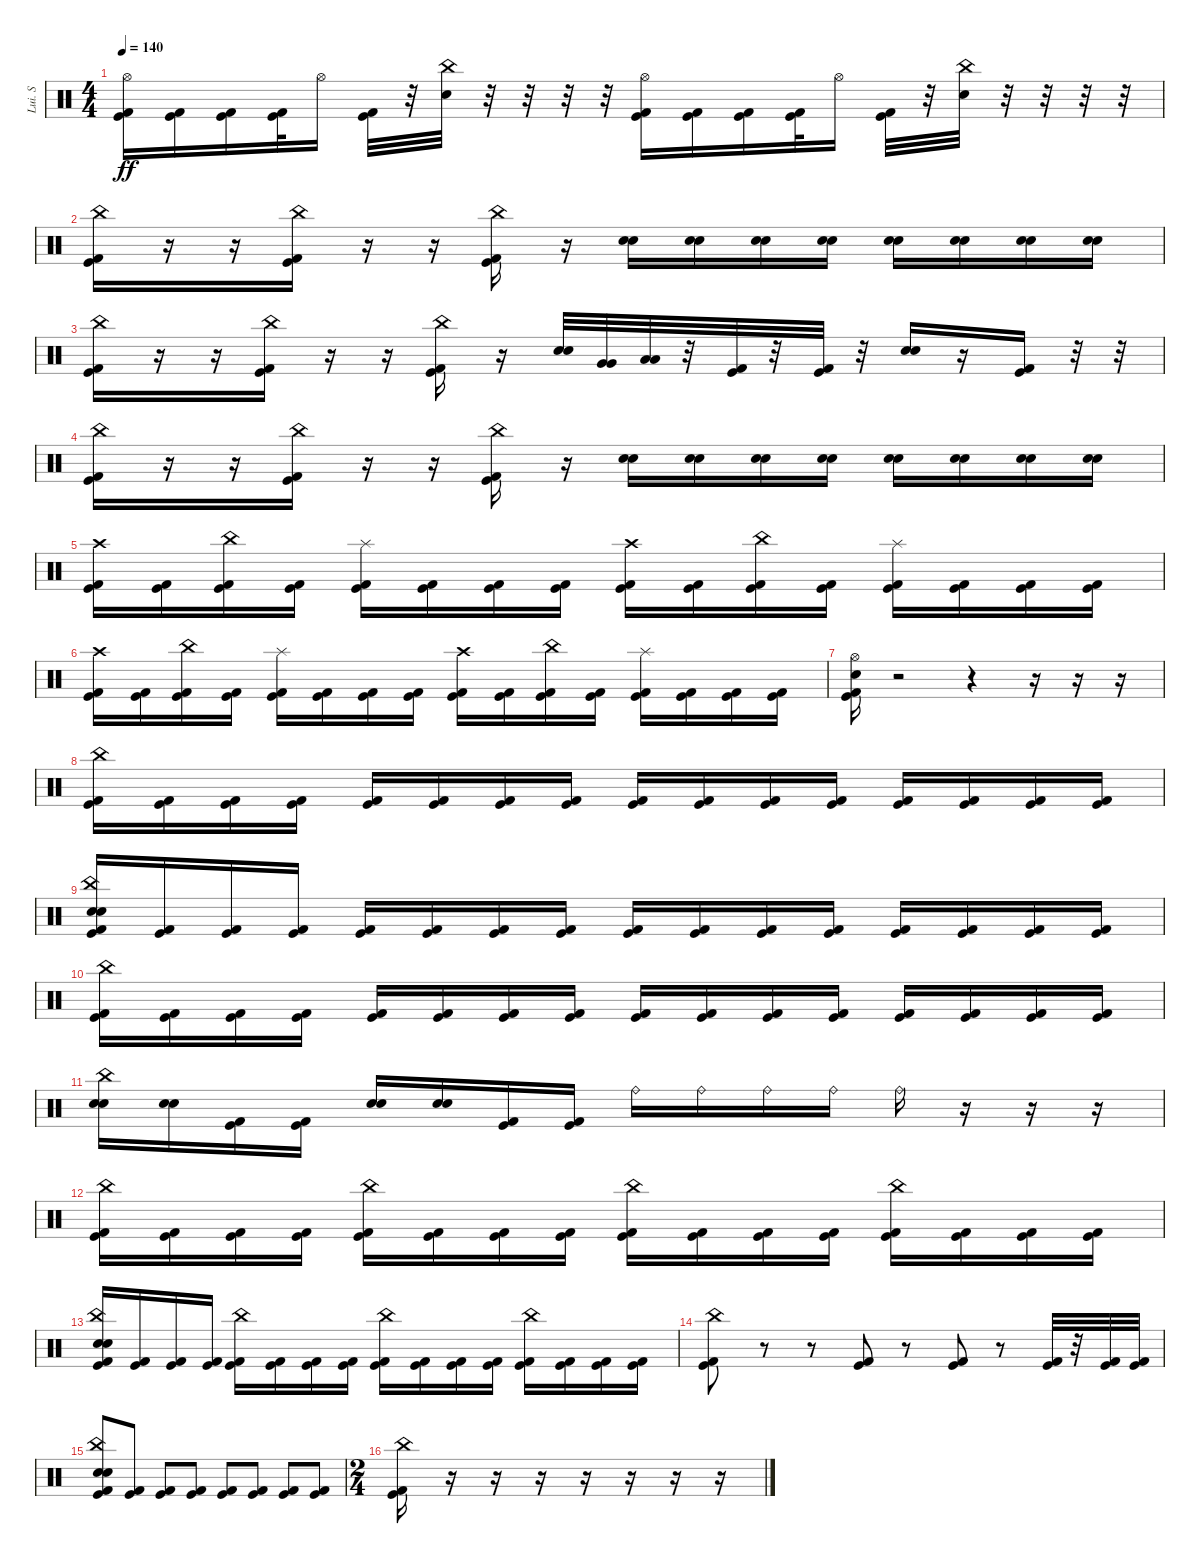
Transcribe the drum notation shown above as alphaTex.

\track ("Lui. S" "Lui. S") {instrument percussion}
\staff {score}
\articulation defaults
\ts (4 4)
\tempo 140
\clef neutral
\ks c
("Hi-Hat (open)" "Kick (hit)" "Kick (hit) 2").16{dy ff} ("Kick (hit)" "Kick (hit) 2").16 ("Kick (hit)" "Kick (hit) 2").16 ("Kick (hit)" "Kick (hit) 2").32 "Hi-Hat (open)".16 ("Kick (hit)" "Kick (hit) 2").32 r.32 ("China (hit)" "Electric Snare (hit)").32 r.32 r.32 r.32 r.32 ("Hi-Hat (open)" "Kick (hit)" "Kick (hit) 2").16 ("Kick (hit)" "Kick (hit) 2").16 ("Kick (hit)" "Kick (hit) 2").16 ("Kick (hit)" "Kick (hit) 2").32 "Hi-Hat (open)".16 ("Kick (hit)" "Kick (hit) 2").32 r.32 ("China (hit)" "Electric Snare (hit)").32 r.32 r.32 r.32 r.32 |
("China (hit)" "Kick (hit)" "Kick (hit) 2").16 r.16 r.16 ("China (hit)" "Kick (hit)" "Kick (hit) 2").16 r.16 r.16 ("China (hit)" "Kick (hit)" "Kick (hit) 2").16 r.16 ("Snare (hit) 2" "Electric Snare (hit)").16 ("Snare (hit) 2" "Electric Snare (hit)").16 ("Snare (hit) 2" "Electric Snare (hit)").16 ("Snare (hit) 2" "Electric Snare (hit)").16 ("Snare (hit) 2" "Electric Snare (hit)").16 ("Snare (hit) 2" "Electric Snare (hit)").16 ("Snare (hit) 2" "Electric Snare (hit)").16 ("Snare (hit) 2" "Electric Snare (hit)").16 |
("China (hit)" "Kick (hit)" "Kick (hit) 2").16 r.16 r.16 ("China (hit)" "Kick (hit)" "Kick (hit) 2").16 r.16 r.16 ("China (hit)" "Kick (hit)" "Kick (hit) 2").16 r.16 ("Snare (hit) 2" "Electric Snare (hit)").32 ("Very Low Tom (hit)" "Very Low Tom (hit)").32 ("Low Floor Tom (hit)" "Low Floor Tom (hit)").32 r.32 ("Kick (hit)" "Kick (hit) 2").32 r.32 ("Kick (hit)" "Kick (hit) 2").32 r.32 ("Snare (hit) 2" "Electric Snare (hit)").16 r.16 ("Kick (hit)" "Kick (hit) 2").16 r.32 r.32 |
("China (hit)" "Kick (hit)" "Kick (hit) 2").16 r.16 r.16 ("China (hit)" "Kick (hit)" "Kick (hit) 2").16 r.16 r.16 ("China (hit)" "Kick (hit)" "Kick (hit) 2").16 r.16 ("Snare (hit) 2" "Electric Snare (hit)").16 ("Snare (hit) 2" "Electric Snare (hit)").16 ("Snare (hit) 2" "Electric Snare (hit)").16 ("Snare (hit) 2" "Electric Snare (hit)").16 ("Snare (hit) 2" "Electric Snare (hit)").16 ("Snare (hit) 2" "Electric Snare (hit)").16 ("Snare (hit) 2" "Electric Snare (hit)").16 ("Snare (hit) 2" "Electric Snare (hit)").16 |
("Crash high (hit)" "Kick (hit)" "Kick (hit) 2").16 ("Kick (hit)" "Kick (hit) 2").16 ("China (hit)" "Kick (hit)" "Kick (hit) 2").16 ("Kick (hit)" "Kick (hit) 2").16 ("Splash (hit)" "Kick (hit)" "Kick (hit) 2").16 ("Kick (hit)" "Kick (hit) 2").16 ("Kick (hit)" "Kick (hit) 2").16 ("Kick (hit)" "Kick (hit) 2").16 ("Crash high (hit)" "Kick (hit)" "Kick (hit) 2").16 ("Kick (hit)" "Kick (hit) 2").16 ("China (hit)" "Kick (hit)" "Kick (hit) 2").16 ("Kick (hit)" "Kick (hit) 2").16 ("Splash (hit)" "Kick (hit)" "Kick (hit) 2").16 ("Kick (hit)" "Kick (hit) 2").16 ("Kick (hit)" "Kick (hit) 2").16 ("Kick (hit)" "Kick (hit) 2").16 |
("Crash high (hit)" "Kick (hit)" "Kick (hit) 2").16 ("Kick (hit)" "Kick (hit) 2").16 ("China (hit)" "Kick (hit)" "Kick (hit) 2").16 ("Kick (hit)" "Kick (hit) 2").16 ("Splash (hit)" "Kick (hit)" "Kick (hit) 2").16 ("Kick (hit)" "Kick (hit) 2").16 ("Kick (hit)" "Kick (hit) 2").16 ("Kick (hit)" "Kick (hit) 2").16 ("Crash high (hit)" "Kick (hit)" "Kick (hit) 2").16 ("Kick (hit)" "Kick (hit) 2").16 ("China (hit)" "Kick (hit)" "Kick (hit) 2").16 ("Kick (hit)" "Kick (hit) 2").16 ("Splash (hit)" "Kick (hit)" "Kick (hit) 2").16 ("Kick (hit)" "Kick (hit) 2").16 ("Kick (hit)" "Kick (hit) 2").16 ("Kick (hit)" "Kick (hit) 2").16 |
("Hi-Hat (open)" "Electric Snare (hit)" "Kick (hit)" "Kick (hit) 2").16 r.2 r.4 r.16 r.16 r.16 |
("China (hit)" "Kick (hit)" "Kick (hit) 2").16 ("Kick (hit)" "Kick (hit) 2").16 ("Kick (hit)" "Kick (hit) 2").16 ("Kick (hit)" "Kick (hit) 2").16 ("Kick (hit)" "Kick (hit) 2").16 ("Kick (hit)" "Kick (hit) 2").16 ("Kick (hit)" "Kick (hit) 2").16 ("Kick (hit)" "Kick (hit) 2").16 ("Kick (hit)" "Kick (hit) 2").16 ("Kick (hit)" "Kick (hit) 2").16 ("Kick (hit)" "Kick (hit) 2").16 ("Kick (hit)" "Kick (hit) 2").16 ("Kick (hit)" "Kick (hit) 2").16 ("Kick (hit)" "Kick (hit) 2").16 ("Kick (hit)" "Kick (hit) 2").16 ("Kick (hit)" "Kick (hit) 2").16 |
("China (hit)" "Electric Snare (hit)" "Kick (hit) 2" "Snare (hit) 2" "Kick (hit)").16 ("Kick (hit) 2" "Kick (hit)").16 ("Kick (hit) 2" "Kick (hit)").16 ("Kick (hit) 2" "Kick (hit)").16 ("Kick (hit) 2" "Kick (hit)").16 ("Kick (hit) 2" "Kick (hit)").16 ("Kick (hit) 2" "Kick (hit)").16 ("Kick (hit) 2" "Kick (hit)").16 ("Kick (hit) 2" "Kick (hit)").16 ("Kick (hit) 2" "Kick (hit)").16 ("Kick (hit) 2" "Kick (hit)").16 ("Kick (hit) 2" "Kick (hit)").16 ("Kick (hit) 2" "Kick (hit)").16 ("Kick (hit) 2" "Kick (hit)").16 ("Kick (hit) 2" "Kick (hit)").16 ("Kick (hit) 2" "Kick (hit)").16 |
("China (hit)" "Kick (hit)" "Kick (hit) 2").16 ("Kick (hit)" "Kick (hit) 2").16 ("Kick (hit)" "Kick (hit) 2").16 ("Kick (hit)" "Kick (hit) 2").16 ("Kick (hit)" "Kick (hit) 2").16 ("Kick (hit)" "Kick (hit) 2").16 ("Kick (hit)" "Kick (hit) 2").16 ("Kick (hit)" "Kick (hit) 2").16 ("Kick (hit)" "Kick (hit) 2").16 ("Kick (hit)" "Kick (hit) 2").16 ("Kick (hit)" "Kick (hit) 2").16 ("Kick (hit)" "Kick (hit) 2").16 ("Kick (hit)" "Kick (hit) 2").16 ("Kick (hit)" "Kick (hit) 2").16 ("Kick (hit)" "Kick (hit) 2").16 ("Kick (hit)" "Kick (hit) 2").16 |
("China (hit)" "Electric Snare (hit)" "Snare (hit) 2").16 ("Electric Snare (hit)" "Snare (hit) 2").16 ("Kick (hit)" "Kick (hit) 2").16 ("Kick (hit)" "Kick (hit) 2").16 ("Electric Snare (hit)" "Snare (hit) 2").16 ("Electric Snare (hit)" "Snare (hit) 2").16 ("Kick (hit)" "Kick (hit) 2").16 ("Kick (hit)" "Kick (hit) 2").16 "Ride (bell)".16 "Ride (bell)".16 "Ride (bell)".16 "Ride (bell)".16 "Ride (bell)".16 r.16 r.16 r.16 |
("China (hit)" "Kick (hit)" "Kick (hit) 2").16 ("Kick (hit)" "Kick (hit) 2").16 ("Kick (hit)" "Kick (hit) 2").16 ("Kick (hit)" "Kick (hit) 2").16 ("China (hit)" "Kick (hit)" "Kick (hit) 2").16 ("Kick (hit)" "Kick (hit) 2").16 ("Kick (hit)" "Kick (hit) 2").16 ("Kick (hit)" "Kick (hit) 2").16 ("China (hit)" "Kick (hit)" "Kick (hit) 2").16 ("Kick (hit)" "Kick (hit) 2").16 ("Kick (hit)" "Kick (hit) 2").16 ("Kick (hit)" "Kick (hit) 2").16 ("China (hit)" "Kick (hit)" "Kick (hit) 2").16 ("Kick (hit)" "Kick (hit) 2").16 ("Kick (hit)" "Kick (hit) 2").16 ("Kick (hit)" "Kick (hit) 2").16 |
("China (hit)" "Kick (hit) 2" "Electric Snare (hit)" "Snare (hit) 2" "Kick (hit)").16 ("Kick (hit)" "Kick (hit) 2").16 ("Kick (hit)" "Kick (hit) 2").16 ("Kick (hit)" "Kick (hit) 2").16 ("China (hit)" "Kick (hit)" "Kick (hit) 2").16 ("Kick (hit)" "Kick (hit) 2").16 ("Kick (hit)" "Kick (hit) 2").16 ("Kick (hit)" "Kick (hit) 2").16 ("China (hit)" "Kick (hit)" "Kick (hit) 2").16 ("Kick (hit)" "Kick (hit) 2").16 ("Kick (hit)" "Kick (hit) 2").16 ("Kick (hit)" "Kick (hit) 2").16 ("China (hit)" "Kick (hit)" "Kick (hit) 2").16 ("Kick (hit)" "Kick (hit) 2").16 ("Kick (hit)" "Kick (hit) 2").16 ("Kick (hit)" "Kick (hit) 2").16 |
("China (hit)" "Kick (hit)" "Kick (hit) 2").8 r.8 r.8 ("Kick (hit) 2" "Kick (hit)").8 r.8 ("Kick (hit) 2" "Kick (hit)").8 r.8 ("Kick (hit) 2" "Kick (hit)").32 r.32 ("Kick (hit) 2" "Kick (hit)").32 ("Kick (hit) 2" "Kick (hit)").32 |
("China (hit)" "Kick (hit)" "Electric Snare (hit)" "Snare (hit) 2" "Kick (hit) 2").8 ("Kick (hit)" "Kick (hit) 2").8 ("Kick (hit)" "Kick (hit) 2").8 ("Kick (hit)" "Kick (hit) 2").8 ("Kick (hit)" "Kick (hit) 2").8 ("Kick (hit)" "Kick (hit) 2").8 ("Kick (hit)" "Kick (hit) 2").8 ("Kick (hit)" "Kick (hit) 2").8 |
\ts (2 4)
("China (hit)" "Kick (hit)" "Kick (hit) 2").16 r.16 r.16{volume 0} r.16 r.16 r.16 r.16 r.16
